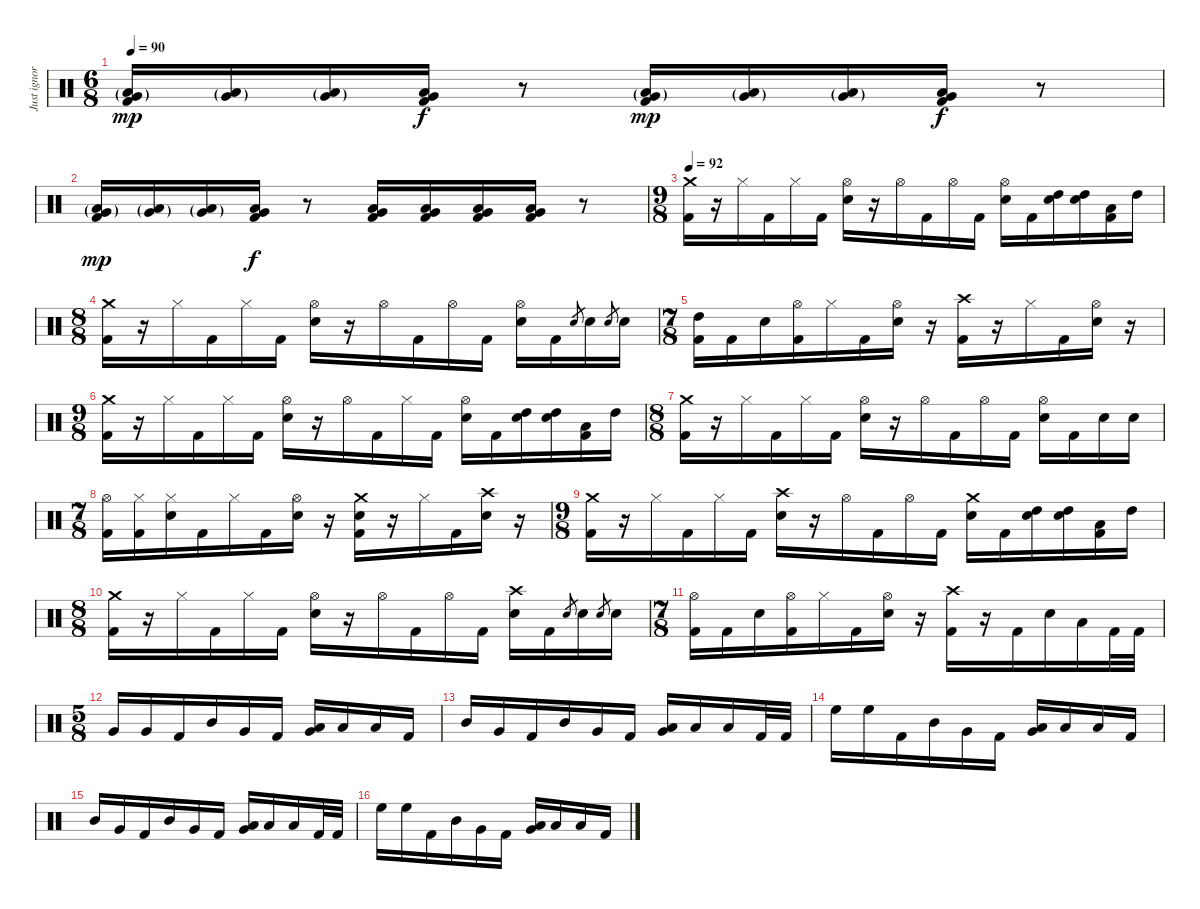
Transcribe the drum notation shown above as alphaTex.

\track ("Just ignore this track" "Just ignor") {instrument percussion}
\staff {score}
\articulation defaults
\ts (6 8)
\tempo 90
\clef neutral
\ks c
("Very Low Tom (hit)"{g} "Low Floor Tom (hit)"{g} "Kick (hit) 2").16{dy mp} ("Very Low Tom (hit)"{g} "Low Floor Tom (hit)"{g}).16 ("Very Low Tom (hit)"{g} "Low Floor Tom (hit)"{g}).16 ("Very Low Tom (hit)" "Low Floor Tom (hit)" "Kick (hit) 2").16{dy f} r.8 ("Very Low Tom (hit)"{g} "Low Floor Tom (hit)"{g} "Kick (hit) 2").16{dy mp} ("Very Low Tom (hit)"{g} "Low Floor Tom (hit)"{g}).16 ("Very Low Tom (hit)"{g} "Low Floor Tom (hit)"{g}).16 ("Very Low Tom (hit)" "Low Floor Tom (hit)" "Kick (hit) 2").16{dy f} r.8 |
("Very Low Tom (hit)"{g} "Low Floor Tom (hit)"{g} "Kick (hit) 2").16{dy mp} ("Very Low Tom (hit)"{g} "Low Floor Tom (hit)"{g}).16 ("Very Low Tom (hit)"{g} "Low Floor Tom (hit)"{g}).16 ("Very Low Tom (hit)" "Low Floor Tom (hit)" "Kick (hit) 2").16{dy f} r.8{volume 16} ("Very Low Tom (hit)" "Low Floor Tom (hit)" "Kick (hit) 2").16 ("Very Low Tom (hit)" "Low Floor Tom (hit)" "Kick (hit) 2").16 ("Very Low Tom (hit)" "Low Floor Tom (hit)" "Kick (hit) 2").16 ("Very Low Tom (hit)" "Low Floor Tom (hit)" "Kick (hit) 2").16 r.8 |
\ts (9 8)
\tempo 88
\tempo 90
\tempo 92
("Crash medium (hit)" "Kick (hit) 2").16 r.16 "Hi-Hat (closed)".16 "Kick (hit) 2".16 "Hi-Hat (closed)".16 "Kick (hit) 2".16 ("Hi-Hat (open)" "Electric Snare (hit)").16 r.16 "Hi-Hat (open)".16 "Kick (hit) 2".16 "Hi-Hat (open)".16 "Kick (hit) 2".16 ("Hi-Hat (open)" "Electric Snare (hit)").16 "Kick (hit) 2".16 ("High Tom (hit)" "Electric Snare (hit)").16 ("High Tom (hit)" "Electric Snare (hit)").16 ("Low Tom (hit)" "Kick (hit) 2").16 "High Tom (hit)".16 |
\ts (8 8)
("Crash medium (hit)" "Kick (hit) 2").16 r.16 "Hi-Hat (closed)".16 "Kick (hit) 2".16 "Hi-Hat (closed)".16 "Kick (hit) 2".16 ("Hi-Hat (open)" "Electric Snare (hit)").16 r.16 "Hi-Hat (open)".16 "Kick (hit) 2".16 "Hi-Hat (open)".16 "Kick (hit) 2".16 ("Hi-Hat (open)" "Electric Snare (hit)").16 "Kick (hit) 2".16 "Electric Snare (hit)".8{gr} "Electric Snare (hit)".16 "Electric Snare (hit)".8{gr} "Electric Snare (hit)".16 |
\ts (7 8)
("High Tom (hit)" "Kick (hit) 2").16 "Kick (hit) 2".16 "Electric Snare (hit)".16 ("Hi-Hat (open)" "Kick (hit) 2").16 "Hi-Hat (closed)".16 "Kick (hit) 2".16 ("Hi-Hat (open)" "Electric Snare (hit)").16 r.16 ("Crash high (hit)" "Kick (hit) 2").16 r.16 "Hi-Hat (closed)".16 "Kick (hit) 2".16 ("Hi-Hat (open)" "Electric Snare (hit)").16 r.16 |
\ts (9 8)
("Crash medium (hit)" "Kick (hit) 2").16 r.16 "Hi-Hat (closed)".16 "Kick (hit) 2".16 "Hi-Hat (closed)".16 "Kick (hit) 2".16 ("Hi-Hat (open)" "Electric Snare (hit)").16 r.16 "Hi-Hat (open)".16 "Kick (hit) 2".16 "Hi-Hat (closed)".16 "Kick (hit) 2".16 ("Hi-Hat (open)" "Electric Snare (hit)").16 "Kick (hit) 2".16 ("High Tom (hit)" "Electric Snare (hit)").16 ("High Tom (hit)" "Electric Snare (hit)").16 ("Low Tom (hit)" "Kick (hit) 2").16 "High Tom (hit)".16 |
\ts (8 8)
("Crash medium (hit)" "Kick (hit) 2").16 r.16 "Hi-Hat (closed)".16 "Kick (hit) 2".16 "Hi-Hat (closed)".16 "Kick (hit) 2".16 ("Hi-Hat (open)" "Electric Snare (hit)").16 r.16 "Hi-Hat (open)".16 "Kick (hit) 2".16 "Hi-Hat (open)".16 "Kick (hit) 2".16 ("Hi-Hat (open)" "Electric Snare (hit)").16 "Kick (hit) 2".16 "Electric Snare (hit)".16 "Electric Snare (hit)".16 |
\ts (7 8)
("Hi-Hat (open)" "Kick (hit) 2").16 ("Hi-Hat (closed)" "Kick (hit) 2").16 ("Hi-Hat (closed)" "Electric Snare (hit)").16 "Kick (hit) 2".16 "Hi-Hat (closed)".16 "Kick (hit) 2".16 ("Hi-Hat (open)" "Electric Snare (hit)").16 r.16 ("Crash medium (hit)" "Electric Snare (hit)" "Kick (hit) 2").16 r.16 "Hi-Hat (closed)".16 "Kick (hit) 2".16 ("Crash high (hit)" "Electric Snare (hit)").16 r.16 |
\ts (9 8)
("Crash medium (hit)" "Kick (hit) 2").16 r.16 "Hi-Hat (closed)".16 "Kick (hit) 2".16 "Hi-Hat (closed)".16 "Kick (hit) 2".16 ("Crash high (hit)" "Electric Snare (hit)").16 r.16 "Hi-Hat (open)".16 "Kick (hit) 2".16 "Hi-Hat (open)".16 "Kick (hit) 2".16 ("Crash medium (hit)" "Electric Snare (hit)").16 "Kick (hit) 2".16 ("High Tom (hit)" "Electric Snare (hit)").16 ("High Tom (hit)" "Electric Snare (hit)").16 ("Low Tom (hit)" "Kick (hit) 2").16 "High Tom (hit)".16 |
\ts (8 8)
("Crash medium (hit)" "Kick (hit) 2").16 r.16 "Hi-Hat (closed)".16 "Kick (hit) 2".16 "Hi-Hat (closed)".16 "Kick (hit) 2".16 ("Hi-Hat (open)" "Electric Snare (hit)").16 r.16 "Hi-Hat (open)".16 "Kick (hit) 2".16 "Hi-Hat (open)".16 "Kick (hit) 2".16 ("Crash high (hit)" "Electric Snare (hit)").16 "Kick (hit) 2".16 "Electric Snare (hit)".8{gr} "Electric Snare (hit)".16 "Electric Snare (hit)".8{gr} "Electric Snare (hit)".16 |
\ts (7 8)
("Hi-Hat (open)" "Kick (hit) 2").16 "Kick (hit) 2".16 "Electric Snare (hit)".16 ("Hi-Hat (open)" "Kick (hit) 2").16 "Hi-Hat (closed)".16 "Kick (hit) 2".16 ("Hi-Hat (open)" "Electric Snare (hit)").16 r.16 ("Crash high (hit)" "Kick (hit) 2").16 r.16 "Kick (hit) 2".16 "Electric Snare (hit)".16 "Low Floor Tom (hit)".16 "Kick (hit) 2".32 "Kick (hit) 2".32 |
\ts (5 8)
"Very Low Tom (hit)".16 "Very Low Tom (hit)".16 "Kick (hit) 2".16 "Mid Tom (hit)".16 "Very Low Tom (hit)".16 "Kick (hit) 2".16 ("Low Floor Tom (hit)" "Very Low Tom (hit)").16 "Low Floor Tom (hit)".16 "Low Floor Tom (hit)".16 "Kick (hit) 2".16 |
"Mid Tom (hit)".16 "Very Low Tom (hit)".16 "Kick (hit) 2".16 "Mid Tom (hit)".16 "Very Low Tom (hit)".16 "Kick (hit) 2".16 ("Low Floor Tom (hit)" "Very Low Tom (hit)").16 "Low Floor Tom (hit)".16 "Low Floor Tom (hit)".16 "Kick (hit) 2".32 "Kick (hit) 2".32 |
"High Floor Tom (hit)".16 "High Floor Tom (hit)".16 "Kick (hit) 2".16 "Mid Tom (hit)".16 "Very Low Tom (hit)".16 "Kick (hit) 2".16 ("Low Floor Tom (hit)" "Very Low Tom (hit)").16 "Low Floor Tom (hit)".16 "Low Floor Tom (hit)".16 "Kick (hit) 2".16 |
"Mid Tom (hit)".16 "Very Low Tom (hit)".16 "Kick (hit) 2".16 "Mid Tom (hit)".16 "Very Low Tom (hit)".16 "Kick (hit) 2".16 ("Low Floor Tom (hit)" "Very Low Tom (hit)").16 "Low Floor Tom (hit)".16 "Low Floor Tom (hit)".16 "Kick (hit) 2".32 "Kick (hit) 2".32 |
"High Floor Tom (hit)".16 "High Floor Tom (hit)".16 "Kick (hit) 2".16 "Mid Tom (hit)".16 "Very Low Tom (hit)".16 "Kick (hit) 2".16 ("Low Floor Tom (hit)" "Very Low Tom (hit)").16 "Low Floor Tom (hit)".16 "Low Floor Tom (hit)".16 "Kick (hit) 2".16
